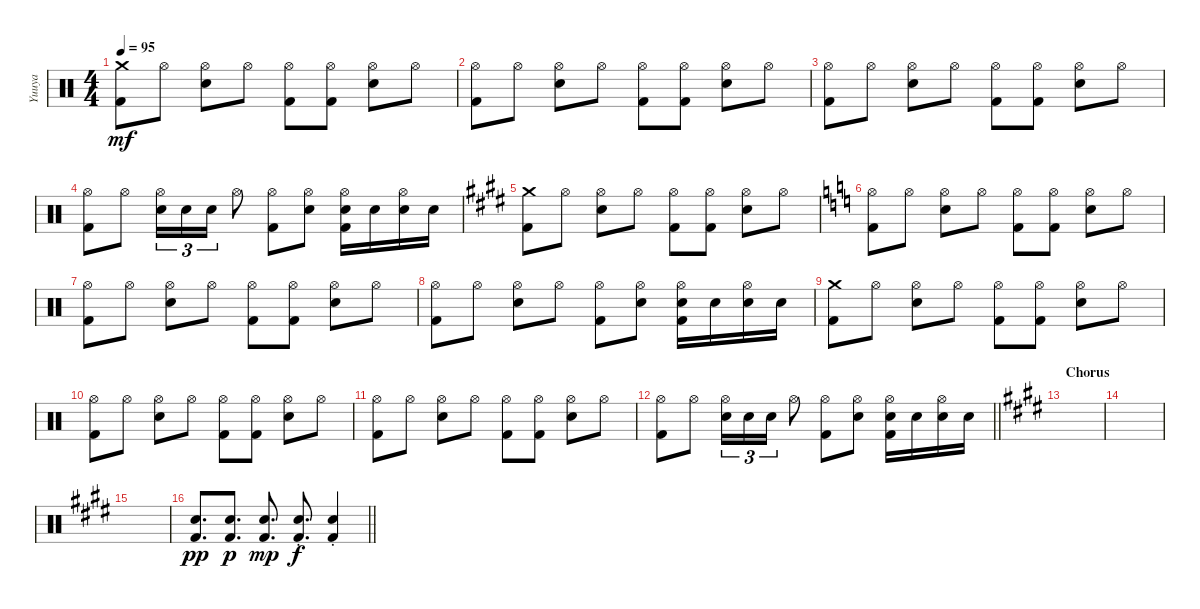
\track ("Yuuya" "Yuuya") {instrument percussion}
\staff {score}
\articulation defaults
\ts (4 4)
\tempo 95
\clef neutral
\ks c
("Crash medium (hit)" "Kick (hit) 2").8{dy mf} "Hi-Hat (open)".8 ("Hi-Hat (open)" "Snare (hit) 2").8 "Hi-Hat (open)".8 ("Hi-Hat (open)" "Kick (hit) 2").8 ("Hi-Hat (open)" "Kick (hit) 2").8 ("Hi-Hat (open)" "Snare (hit) 2").8 "Hi-Hat (open)".8 |
("Hi-Hat (open)" "Kick (hit) 2").8 "Hi-Hat (open)".8 ("Hi-Hat (open)" "Snare (hit) 2").8 "Hi-Hat (open)".8 ("Hi-Hat (open)" "Kick (hit) 2").8 ("Hi-Hat (open)" "Kick (hit) 2").8 ("Hi-Hat (open)" "Snare (hit) 2").8 "Hi-Hat (open)".8 |
("Hi-Hat (open)" "Kick (hit) 2").8 "Hi-Hat (open)".8 ("Hi-Hat (open)" "Snare (hit) 2").8 "Hi-Hat (open)".8 ("Hi-Hat (open)" "Kick (hit) 2").8 ("Hi-Hat (open)" "Kick (hit) 2").8 ("Hi-Hat (open)" "Snare (hit) 2").8 "Hi-Hat (open)".8 |
("Hi-Hat (open)" "Kick (hit) 2").8 "Hi-Hat (open)".8 ("Hi-Hat (open)" "Snare (hit) 2").16{tu (3 2)} "Snare (hit) 2".16{tu (3 2)} "Snare (hit) 2".16{tu (3 2)} "Hi-Hat (open)".8 ("Hi-Hat (open)" "Kick (hit) 2").8 ("Hi-Hat (open)" "Snare (hit) 2").8 ("Hi-Hat (open)" "Snare (hit) 2" "Kick (hit) 2").16 "Snare (hit) 2".16 ("Hi-Hat (open)" "Snare (hit) 2").16 "Snare (hit) 2".16 |
\ks e
("Crash medium (hit)" "Kick (hit) 2").8 "Hi-Hat (open)".8 ("Hi-Hat (open)" "Snare (hit) 2").8 "Hi-Hat (open)".8 ("Hi-Hat (open)" "Kick (hit) 2").8 ("Hi-Hat (open)" "Kick (hit) 2").8 ("Hi-Hat (open)" "Snare (hit) 2").8 "Hi-Hat (open)".8 |
\ks c
("Hi-Hat (open)" "Kick (hit) 2").8 "Hi-Hat (open)".8 ("Hi-Hat (open)" "Snare (hit) 2").8 "Hi-Hat (open)".8 ("Hi-Hat (open)" "Kick (hit) 2").8 ("Hi-Hat (open)" "Kick (hit) 2").8 ("Hi-Hat (open)" "Snare (hit) 2").8 "Hi-Hat (open)".8 |
("Hi-Hat (open)" "Kick (hit) 2").8 "Hi-Hat (open)".8 ("Hi-Hat (open)" "Snare (hit) 2").8 "Hi-Hat (open)".8 ("Hi-Hat (open)" "Kick (hit) 2").8 ("Hi-Hat (open)" "Kick (hit) 2").8 ("Hi-Hat (open)" "Snare (hit) 2").8 "Hi-Hat (open)".8 |
("Hi-Hat (open)" "Kick (hit) 2").8 "Hi-Hat (open)".8 ("Hi-Hat (open)" "Snare (hit) 2").8 "Hi-Hat (open)".8 ("Hi-Hat (open)" "Kick (hit) 2").8 ("Hi-Hat (open)" "Snare (hit) 2").8 ("Hi-Hat (open)" "Snare (hit) 2" "Kick (hit) 2").16 "Snare (hit) 2".16 ("Hi-Hat (open)" "Snare (hit) 2").16 "Snare (hit) 2".16 |
("Crash medium (hit)" "Kick (hit) 2").8 "Hi-Hat (open)".8 ("Hi-Hat (open)" "Snare (hit) 2").8 "Hi-Hat (open)".8 ("Hi-Hat (open)" "Kick (hit) 2").8 ("Hi-Hat (open)" "Kick (hit) 2").8 ("Hi-Hat (open)" "Snare (hit) 2").8 "Hi-Hat (open)".8 |
("Hi-Hat (open)" "Kick (hit) 2").8 "Hi-Hat (open)".8 ("Hi-Hat (open)" "Snare (hit) 2").8 "Hi-Hat (open)".8 ("Hi-Hat (open)" "Kick (hit) 2").8 ("Hi-Hat (open)" "Kick (hit) 2").8 ("Hi-Hat (open)" "Snare (hit) 2").8 "Hi-Hat (open)".8 |
("Hi-Hat (open)" "Kick (hit) 2").8 "Hi-Hat (open)".8 ("Hi-Hat (open)" "Snare (hit) 2").8 "Hi-Hat (open)".8 ("Hi-Hat (open)" "Kick (hit) 2").8 ("Hi-Hat (open)" "Kick (hit) 2").8 ("Hi-Hat (open)" "Snare (hit) 2").8 "Hi-Hat (open)".8 |
\barLineRight lightlight
("Hi-Hat (open)" "Kick (hit) 2").8 "Hi-Hat (open)".8 ("Hi-Hat (open)" "Snare (hit) 2").16{tu (3 2)} "Snare (hit) 2".16{tu (3 2)} "Snare (hit) 2".16{tu (3 2)} "Hi-Hat (open)".8 ("Hi-Hat (open)" "Kick (hit) 2").8 ("Hi-Hat (open)" "Snare (hit) 2").8 ("Hi-Hat (open)" "Snare (hit) 2" "Kick (hit) 2").16 "Snare (hit) 2".16 ("Hi-Hat (open)" "Snare (hit) 2").16 "Snare (hit) 2".16 |
\section ("" "Chorus")
\ks e
|
|
|
\barLineRight lightlight
("Kick (hit) 2" "Snare (hit) 2").8{d dy pp} ("Kick (hit) 2" "Snare (hit) 2").8{d dy p} ("Kick (hit) 2" "Snare (hit) 2").8{d dy mp} ("Kick (hit) 2"{st} "Snare (hit) 2"{st}).8{d dy f} ("Kick (hit) 2"{st} "Snare (hit) 2"{st}).4
